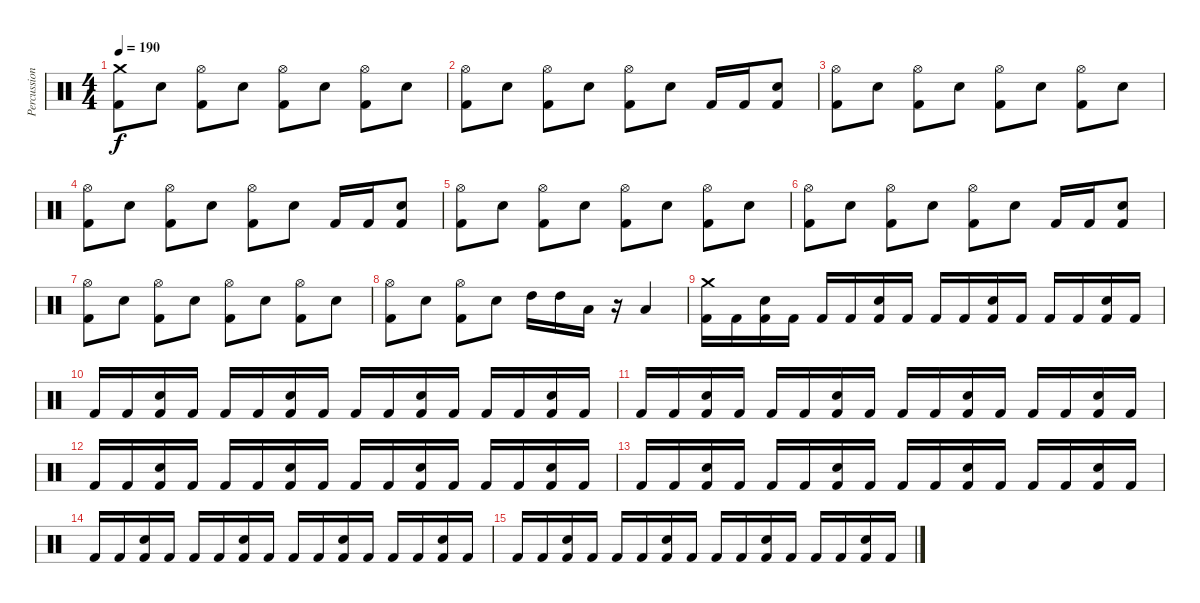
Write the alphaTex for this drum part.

\track ("Percussion" "Percussion") {instrument percussion}
\staff {score}
\articulation defaults
\ts (4 4)
\tempo 190
\clef neutral
\ks c
("Crash medium (hit)" "Kick (hit) 2").8{dy f} "Snare (hit) 2".8 ("Hi-Hat (open)" "Kick (hit) 2").8 "Snare (hit) 2".8 ("Hi-Hat (open)" "Kick (hit) 2").8 "Snare (hit) 2".8 ("Hi-Hat (open)" "Kick (hit) 2").8 "Snare (hit) 2".8 |
("Hi-Hat (open)" "Kick (hit) 2").8 "Snare (hit) 2".8 ("Hi-Hat (open)" "Kick (hit) 2").8 "Snare (hit) 2".8 ("Hi-Hat (open)" "Kick (hit) 2").8 "Snare (hit) 2".8 "Kick (hit) 2".16 "Kick (hit) 2".16 ("Snare (hit) 2" "Kick (hit) 2").8 |
("Hi-Hat (open)" "Kick (hit) 2").8 "Snare (hit) 2".8 ("Hi-Hat (open)" "Kick (hit) 2").8 "Snare (hit) 2".8 ("Hi-Hat (open)" "Kick (hit) 2").8 "Snare (hit) 2".8 ("Hi-Hat (open)" "Kick (hit) 2").8 "Snare (hit) 2".8 |
("Hi-Hat (open)" "Kick (hit) 2").8 "Snare (hit) 2".8 ("Hi-Hat (open)" "Kick (hit) 2").8 "Snare (hit) 2".8 ("Hi-Hat (open)" "Kick (hit) 2").8 "Snare (hit) 2".8 "Kick (hit) 2".16 "Kick (hit) 2".16 ("Snare (hit) 2" "Kick (hit) 2").8 |
("Hi-Hat (open)" "Kick (hit) 2").8 "Snare (hit) 2".8 ("Hi-Hat (open)" "Kick (hit) 2").8 "Snare (hit) 2".8 ("Hi-Hat (open)" "Kick (hit) 2").8 "Snare (hit) 2".8 ("Hi-Hat (open)" "Kick (hit) 2").8 "Snare (hit) 2".8 |
("Hi-Hat (open)" "Kick (hit) 2").8 "Snare (hit) 2".8 ("Hi-Hat (open)" "Kick (hit) 2").8 "Snare (hit) 2".8 ("Hi-Hat (open)" "Kick (hit) 2").8 "Snare (hit) 2".8 "Kick (hit) 2".16 "Kick (hit) 2".16 ("Snare (hit) 2" "Kick (hit) 2").8 |
("Hi-Hat (open)" "Kick (hit) 2").8 "Snare (hit) 2".8 ("Hi-Hat (open)" "Kick (hit) 2").8 "Snare (hit) 2".8 ("Hi-Hat (open)" "Kick (hit) 2").8 "Snare (hit) 2".8 ("Hi-Hat (open)" "Kick (hit) 2").8 "Snare (hit) 2".8 |
("Hi-Hat (open)" "Kick (hit) 2").8 "Snare (hit) 2".8 ("Hi-Hat (open)" "Kick (hit) 2").8 "Snare (hit) 2".8 "High Tom (hit)".16 "High Tom (hit)".16 "Low Tom (hit)".16 r.16 "Low Floor Tom (hit)".4 |
("Crash medium (hit)" "Kick (hit) 2").16 "Kick (hit) 2".16 ("Electric Snare (hit)" "Kick (hit) 2").16 "Kick (hit) 2".16 "Kick (hit) 2".16 "Kick (hit) 2".16 ("Electric Snare (hit)" "Kick (hit) 2").16 "Kick (hit) 2".16 "Kick (hit) 2".16 "Kick (hit) 2".16 ("Electric Snare (hit)" "Kick (hit) 2").16 "Kick (hit) 2".16 "Kick (hit) 2".16 "Kick (hit) 2".16 ("Electric Snare (hit)" "Kick (hit) 2").16 "Kick (hit) 2".16 |
"Kick (hit) 2".16 "Kick (hit) 2".16 ("Electric Snare (hit)" "Kick (hit) 2").16 "Kick (hit) 2".16 "Kick (hit) 2".16 "Kick (hit) 2".16 ("Electric Snare (hit)" "Kick (hit) 2").16 "Kick (hit) 2".16 "Kick (hit) 2".16 "Kick (hit) 2".16 ("Electric Snare (hit)" "Kick (hit) 2").16 "Kick (hit) 2".16 "Kick (hit) 2".16 "Kick (hit) 2".16 ("Electric Snare (hit)" "Kick (hit) 2").16 "Kick (hit) 2".16 |
"Kick (hit) 2".16 "Kick (hit) 2".16 ("Electric Snare (hit)" "Kick (hit) 2").16 "Kick (hit) 2".16 "Kick (hit) 2".16 "Kick (hit) 2".16 ("Electric Snare (hit)" "Kick (hit) 2").16 "Kick (hit) 2".16 "Kick (hit) 2".16 "Kick (hit) 2".16 ("Electric Snare (hit)" "Kick (hit) 2").16 "Kick (hit) 2".16 "Kick (hit) 2".16 "Kick (hit) 2".16 ("Electric Snare (hit)" "Kick (hit) 2").16 "Kick (hit) 2".16 |
"Kick (hit) 2".16 "Kick (hit) 2".16 ("Electric Snare (hit)" "Kick (hit) 2").16 "Kick (hit) 2".16 "Kick (hit) 2".16 "Kick (hit) 2".16 ("Electric Snare (hit)" "Kick (hit) 2").16 "Kick (hit) 2".16 "Kick (hit) 2".16 "Kick (hit) 2".16 ("Electric Snare (hit)" "Kick (hit) 2").16 "Kick (hit) 2".16 "Kick (hit) 2".16 "Kick (hit) 2".16 ("Electric Snare (hit)" "Kick (hit) 2").16 "Kick (hit) 2".16 |
"Kick (hit) 2".16 "Kick (hit) 2".16 ("Electric Snare (hit)" "Kick (hit) 2").16 "Kick (hit) 2".16 "Kick (hit) 2".16 "Kick (hit) 2".16 ("Electric Snare (hit)" "Kick (hit) 2").16 "Kick (hit) 2".16 "Kick (hit) 2".16 "Kick (hit) 2".16 ("Electric Snare (hit)" "Kick (hit) 2").16 "Kick (hit) 2".16 "Kick (hit) 2".16 "Kick (hit) 2".16 ("Electric Snare (hit)" "Kick (hit) 2").16 "Kick (hit) 2".16 |
"Kick (hit) 2".16 "Kick (hit) 2".16 ("Electric Snare (hit)" "Kick (hit) 2").16 "Kick (hit) 2".16 "Kick (hit) 2".16 "Kick (hit) 2".16 ("Electric Snare (hit)" "Kick (hit) 2").16 "Kick (hit) 2".16 "Kick (hit) 2".16 "Kick (hit) 2".16 ("Electric Snare (hit)" "Kick (hit) 2").16 "Kick (hit) 2".16 "Kick (hit) 2".16 "Kick (hit) 2".16 ("Electric Snare (hit)" "Kick (hit) 2").16 "Kick (hit) 2".16 |
"Kick (hit) 2".16 "Kick (hit) 2".16 ("Electric Snare (hit)" "Kick (hit) 2").16 "Kick (hit) 2".16 "Kick (hit) 2".16 "Kick (hit) 2".16 ("Electric Snare (hit)" "Kick (hit) 2").16 "Kick (hit) 2".16 "Kick (hit) 2".16 "Kick (hit) 2".16 ("Electric Snare (hit)" "Kick (hit) 2").16 "Kick (hit) 2".16 "Kick (hit) 2".16 "Kick (hit) 2".16 ("Electric Snare (hit)" "Kick (hit) 2").16 "Kick (hit) 2".16
